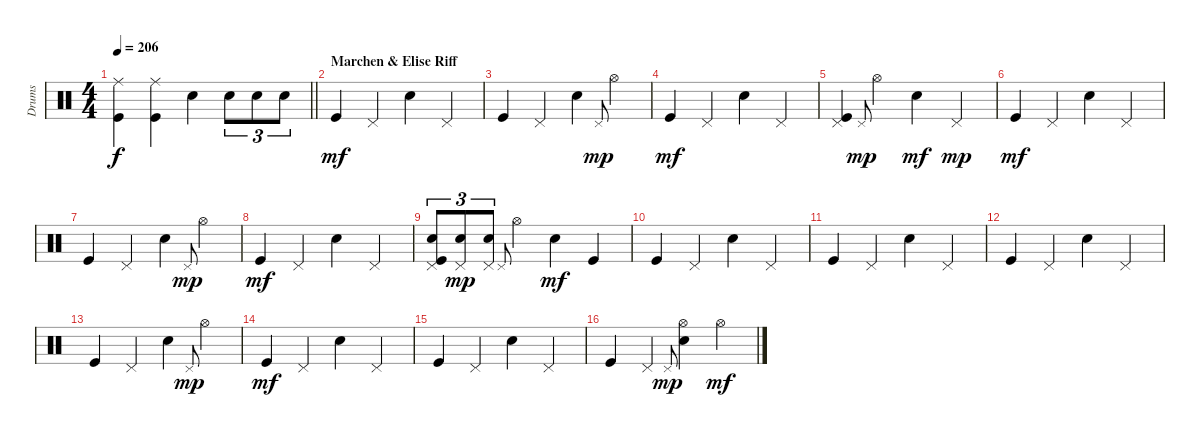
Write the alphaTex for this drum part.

\track ("Drums" "Drums") {instrument percussion}
\staff {score}
\articulation defaults
\ts (4 4)
\tempo 206
\clef neutral
\barLineRight lightlight
\ks c
("Ride (middle)" "Kick (hit)").4{dy f} ("Ride (middle)" "Kick (hit)").4 "Electric Snare (hit)".4 "Electric Snare (hit)".8{tu (3 2)} "Electric Snare (hit)".8{tu (3 2)} "Electric Snare (hit)".8{tu (3 2)} |
\section ("" "Marchen & Elise Riff")
"Kick (hit)".4{dy mf volume 9} "Pedal Hi-Hat (hit)".4 "Electric Snare (hit)".4 "Pedal Hi-Hat (hit)".4 |
"Kick (hit)".4 "Pedal Hi-Hat (hit)".4 "Electric Snare (hit)".4 "Pedal Hi-Hat (hit)".8{gr onbeat dy mp} "Hi-Hat (open)".4 |
"Kick (hit)".4{dy mf} "Pedal Hi-Hat (hit)".4 "Electric Snare (hit)".4 "Pedal Hi-Hat (hit)".4 |
("Pedal Hi-Hat (hit)" "Kick (hit)").4 "Pedal Hi-Hat (hit)".8{gr onbeat dy mp} "Hi-Hat (open)".4 "Electric Snare (hit)".4{dy mf} "Pedal Hi-Hat (hit)".4{dy mp} |
"Kick (hit)".4{dy mf} "Pedal Hi-Hat (hit)".4 "Electric Snare (hit)".4 "Pedal Hi-Hat (hit)".4 |
"Kick (hit)".4 "Pedal Hi-Hat (hit)".4 "Electric Snare (hit)".4 "Pedal Hi-Hat (hit)".8{gr onbeat dy mp} "Hi-Hat (open)".4 |
"Kick (hit)".4{dy mf} "Pedal Hi-Hat (hit)".4 "Electric Snare (hit)".4 "Pedal Hi-Hat (hit)".4 |
("Pedal Hi-Hat (hit)" "Electric Snare (hit)" "Kick (hit)").8{tu (3 2)} ("Pedal Hi-Hat (hit)" "Electric Snare (hit)").8{tu (3 2) dy mp} ("Pedal Hi-Hat (hit)" "Electric Snare (hit)").8{tu (3 2)} "Pedal Hi-Hat (hit)".8{gr onbeat} "Hi-Hat (open)".4 "Electric Snare (hit)".4{dy mf} "Kick (hit)".4 |
"Kick (hit)".4 "Pedal Hi-Hat (hit)".4 "Electric Snare (hit)".4 "Pedal Hi-Hat (hit)".4 |
"Kick (hit)".4 "Pedal Hi-Hat (hit)".4 "Electric Snare (hit)".4 "Pedal Hi-Hat (hit)".4 |
"Kick (hit)".4 "Pedal Hi-Hat (hit)".4 "Electric Snare (hit)".4 "Pedal Hi-Hat (hit)".4 |
"Kick (hit)".4 "Pedal Hi-Hat (hit)".4 "Electric Snare (hit)".4 "Pedal Hi-Hat (hit)".8{gr onbeat dy mp} "Hi-Hat (open)".4 |
"Kick (hit)".4{dy mf} "Pedal Hi-Hat (hit)".4 "Electric Snare (hit)".4 "Pedal Hi-Hat (hit)".4 |
"Kick (hit)".4 "Pedal Hi-Hat (hit)".4 "Electric Snare (hit)".4 "Pedal Hi-Hat (hit)".4 |
"Kick (hit)".4 "Pedal Hi-Hat (hit)".4 "Pedal Hi-Hat (hit)".8{gr onbeat dy mp} ("Hi-Hat (open)" "Electric Snare (hit)").4 "Hi-Hat (open)".4{dy mf}
